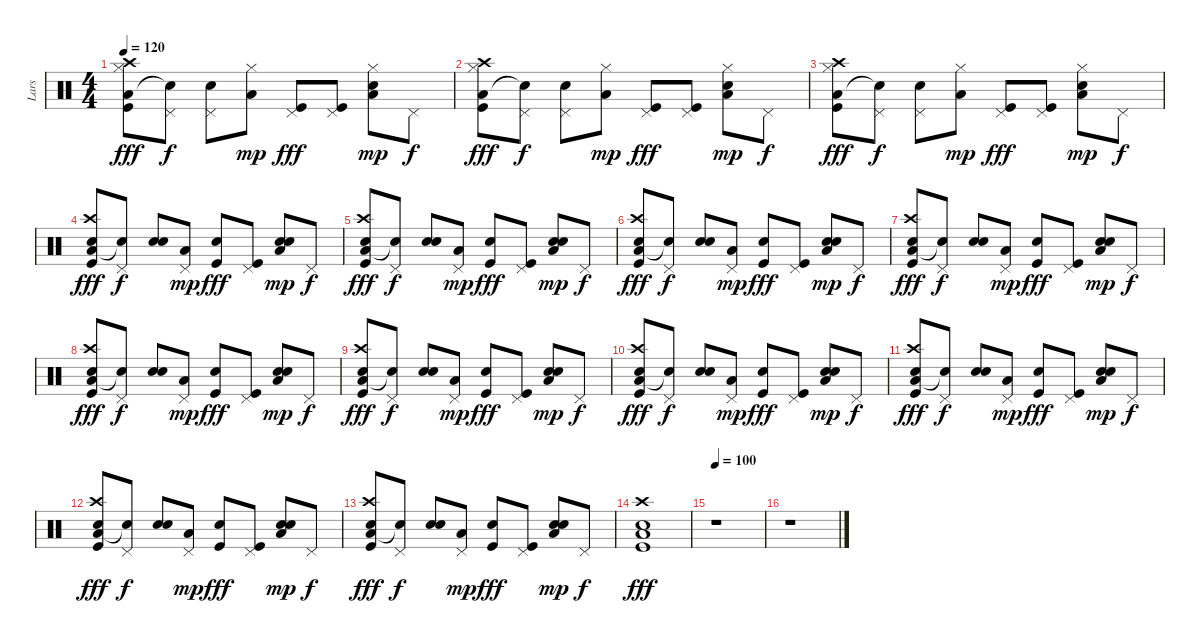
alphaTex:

\track ("Lars" "Lars") {instrument percussion}
\staff {score}
\articulation defaults
\ts (4 4)
\tempo 120
\clef neutral
\ks c
("Hi-Hat (closed)" "Low Floor Tom (hit)" "Crash high (hit)" "Kick (hit)").8{dy fff} ("Pedal Hi-Hat (hit)" "Snare (hit)"{t}).8{dy f} ("Pedal Hi-Hat (hit)" "Electric Snare (hit)").8 ("Hi-Hat (closed)" "Low Floor Tom (hit)").8{dy mp} ("Pedal Hi-Hat (hit)" "Kick (hit)").8{dy fff} ("Pedal Hi-Hat (hit)" "Kick (hit)").8 ("Hi-Hat (closed)" "Low Floor Tom (hit)" "Electric Snare (hit)").8{dy mp} "Pedal Hi-Hat (hit)".8{dy f} |
("Hi-Hat (closed)" "Low Floor Tom (hit)" "Crash high (hit)" "Kick (hit)").8{dy fff} ("Pedal Hi-Hat (hit)" "Snare (hit)"{t}).8{dy f} ("Pedal Hi-Hat (hit)" "Electric Snare (hit)").8 ("Hi-Hat (closed)" "Low Floor Tom (hit)").8{dy mp} ("Pedal Hi-Hat (hit)" "Kick (hit)").8{dy fff} ("Pedal Hi-Hat (hit)" "Kick (hit)").8 ("Hi-Hat (closed)" "Low Floor Tom (hit)" "Electric Snare (hit)").8{dy mp} "Pedal Hi-Hat (hit)".8{dy f} |
("Hi-Hat (closed)" "Low Floor Tom (hit)" "Crash high (hit)" "Kick (hit)").8{dy fff} ("Pedal Hi-Hat (hit)" "Snare (hit)"{t}).8{dy f} ("Pedal Hi-Hat (hit)" "Electric Snare (hit)").8 ("Hi-Hat (closed)" "Low Floor Tom (hit)").8{dy mp} ("Pedal Hi-Hat (hit)" "Kick (hit)").8{dy fff} ("Pedal Hi-Hat (hit)" "Kick (hit)").8 ("Hi-Hat (closed)" "Low Floor Tom (hit)" "Electric Snare (hit)").8{dy mp} "Pedal Hi-Hat (hit)".8{dy f} |
("Snare (hit) 2" "Low Floor Tom (hit)" "Crash high (hit)" "Kick (hit)").8{dy fff} ("Pedal Hi-Hat (hit)" "Snare (hit)"{t}).8{dy f} ("Snare (hit) 2" "Electric Snare (hit)").8 ("Pedal Hi-Hat (hit)" "Low Floor Tom (hit)").8{dy mp} ("Snare (hit) 2" "Kick (hit)").8{dy fff} ("Pedal Hi-Hat (hit)" "Kick (hit)").8 ("Snare (hit) 2" "Low Floor Tom (hit)" "Electric Snare (hit)").8{dy mp} "Pedal Hi-Hat (hit)".8{dy f} |
("Snare (hit) 2" "Low Floor Tom (hit)" "Crash high (hit)" "Kick (hit)").8{dy fff} ("Pedal Hi-Hat (hit)" "Snare (hit)"{t}).8{dy f} ("Snare (hit) 2" "Electric Snare (hit)").8 ("Pedal Hi-Hat (hit)" "Low Floor Tom (hit)").8{dy mp} ("Snare (hit) 2" "Kick (hit)").8{dy fff} ("Pedal Hi-Hat (hit)" "Kick (hit)").8 ("Snare (hit) 2" "Low Floor Tom (hit)" "Electric Snare (hit)").8{dy mp} "Pedal Hi-Hat (hit)".8{dy f} |
("Snare (hit) 2" "Low Floor Tom (hit)" "Crash high (hit)" "Kick (hit)").8{dy fff} ("Pedal Hi-Hat (hit)" "Snare (hit)"{t}).8{dy f} ("Snare (hit) 2" "Electric Snare (hit)").8 ("Pedal Hi-Hat (hit)" "Low Floor Tom (hit)").8{dy mp} ("Snare (hit) 2" "Kick (hit)").8{dy fff} ("Pedal Hi-Hat (hit)" "Kick (hit)").8 ("Snare (hit) 2" "Low Floor Tom (hit)" "Electric Snare (hit)").8{dy mp} "Pedal Hi-Hat (hit)".8{dy f} |
("Snare (hit) 2" "Low Floor Tom (hit)" "Crash high (hit)" "Kick (hit)").8{dy fff} ("Pedal Hi-Hat (hit)" "Snare (hit)"{t}).8{dy f} ("Snare (hit) 2" "Electric Snare (hit)").8 ("Pedal Hi-Hat (hit)" "Low Floor Tom (hit)").8{dy mp} ("Snare (hit) 2" "Kick (hit)").8{dy fff} ("Pedal Hi-Hat (hit)" "Kick (hit)").8 ("Snare (hit) 2" "Low Floor Tom (hit)" "Electric Snare (hit)").8{dy mp} "Pedal Hi-Hat (hit)".8{dy f} |
("Snare (hit) 2" "Low Floor Tom (hit)" "Crash high (hit)" "Kick (hit)").8{dy fff} ("Pedal Hi-Hat (hit)" "Snare (hit)"{t}).8{dy f} ("Snare (hit) 2" "Electric Snare (hit)").8 ("Pedal Hi-Hat (hit)" "Low Floor Tom (hit)").8{dy mp} ("Snare (hit) 2" "Kick (hit)").8{dy fff} ("Pedal Hi-Hat (hit)" "Kick (hit)").8 ("Snare (hit) 2" "Low Floor Tom (hit)" "Electric Snare (hit)").8{dy mp} "Pedal Hi-Hat (hit)".8{dy f} |
("Snare (hit) 2" "Low Floor Tom (hit)" "Crash high (hit)" "Kick (hit)").8{dy fff} ("Pedal Hi-Hat (hit)" "Snare (hit)"{t}).8{dy f} ("Snare (hit) 2" "Electric Snare (hit)").8 ("Pedal Hi-Hat (hit)" "Low Floor Tom (hit)").8{dy mp} ("Snare (hit) 2" "Kick (hit)").8{dy fff} ("Pedal Hi-Hat (hit)" "Kick (hit)").8 ("Snare (hit) 2" "Low Floor Tom (hit)" "Electric Snare (hit)").8{dy mp} "Pedal Hi-Hat (hit)".8{dy f} |
("Snare (hit) 2" "Low Floor Tom (hit)" "Crash high (hit)" "Kick (hit)").8{dy fff} ("Pedal Hi-Hat (hit)" "Snare (hit)"{t}).8{dy f} ("Snare (hit) 2" "Electric Snare (hit)").8 ("Pedal Hi-Hat (hit)" "Low Floor Tom (hit)").8{dy mp} ("Snare (hit) 2" "Kick (hit)").8{dy fff} ("Pedal Hi-Hat (hit)" "Kick (hit)").8 ("Snare (hit) 2" "Low Floor Tom (hit)" "Electric Snare (hit)").8{dy mp} "Pedal Hi-Hat (hit)".8{dy f} |
("Snare (hit) 2" "Low Floor Tom (hit)" "Crash high (hit)" "Kick (hit)").8{dy fff} ("Pedal Hi-Hat (hit)" "Snare (hit)"{t}).8{dy f} ("Snare (hit) 2" "Electric Snare (hit)").8 ("Pedal Hi-Hat (hit)" "Low Floor Tom (hit)").8{dy mp} ("Snare (hit) 2" "Kick (hit)").8{dy fff} ("Pedal Hi-Hat (hit)" "Kick (hit)").8 ("Snare (hit) 2" "Low Floor Tom (hit)" "Electric Snare (hit)").8{dy mp} "Pedal Hi-Hat (hit)".8{dy f} |
("Snare (hit) 2" "Low Floor Tom (hit)" "Crash high (hit)" "Kick (hit)").8{dy fff} ("Pedal Hi-Hat (hit)" "Snare (hit)"{t}).8{dy f} ("Snare (hit) 2" "Electric Snare (hit)").8 ("Pedal Hi-Hat (hit)" "Low Floor Tom (hit)").8{dy mp} ("Snare (hit) 2" "Kick (hit)").8{dy fff} ("Pedal Hi-Hat (hit)" "Kick (hit)").8 ("Snare (hit) 2" "Low Floor Tom (hit)" "Electric Snare (hit)").8{dy mp} "Pedal Hi-Hat (hit)".8{dy f} |
("Snare (hit) 2" "Low Floor Tom (hit)" "Crash high (hit)" "Kick (hit)").8{dy fff} ("Pedal Hi-Hat (hit)" "Snare (hit)"{t}).8{dy f} ("Snare (hit) 2" "Electric Snare (hit)").8 ("Pedal Hi-Hat (hit)" "Low Floor Tom (hit)").8{dy mp} ("Snare (hit) 2" "Kick (hit)").8{dy fff} ("Pedal Hi-Hat (hit)" "Kick (hit)").8 ("Snare (hit) 2" "Low Floor Tom (hit)" "Electric Snare (hit)").8{dy mp} "Pedal Hi-Hat (hit)".8{dy f} |
("Snare (hit) 2" "Low Floor Tom (hit)" "Crash high (hit)" "Kick (hit)").1{dy fff} |
\tempo 100
r.1 |
r.1
